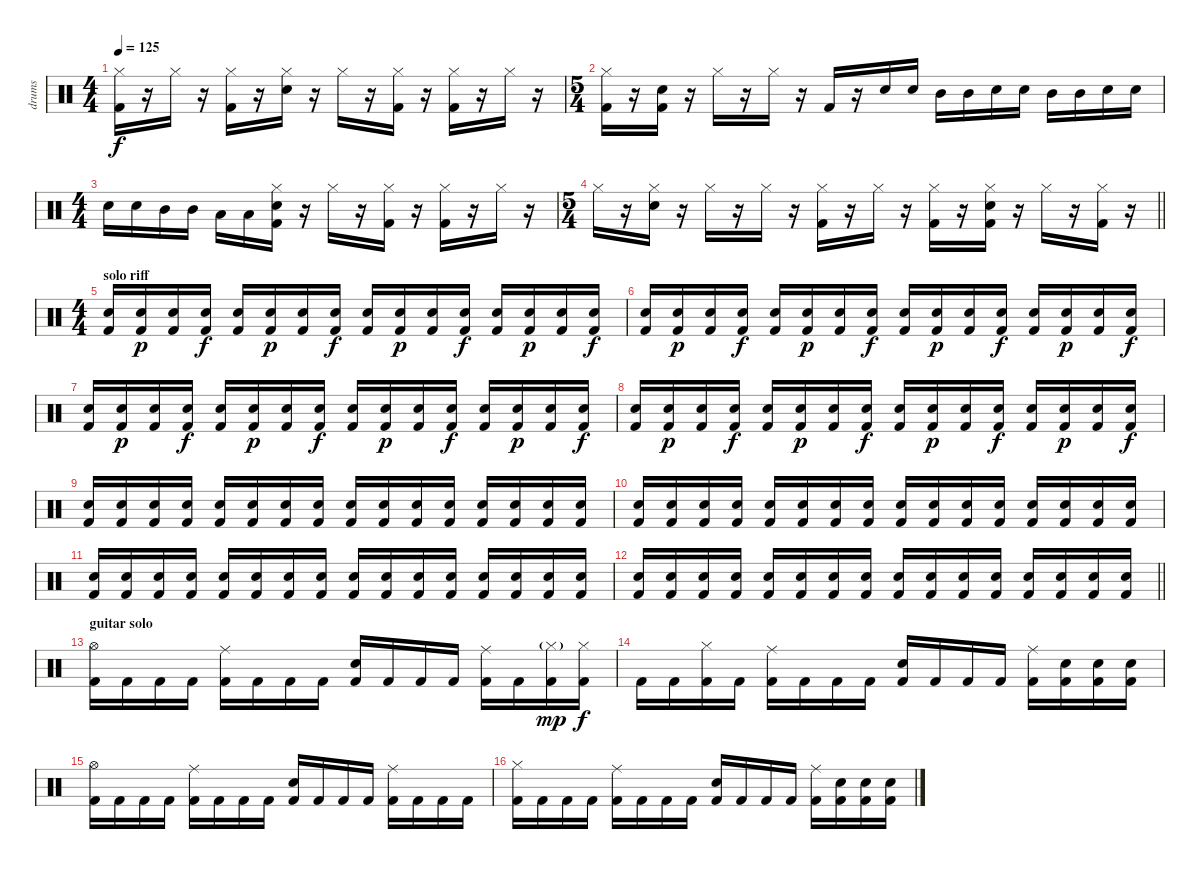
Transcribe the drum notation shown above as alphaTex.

\track ("drums" "drums") {instrument percussion}
\staff {score}
\articulation defaults
\ts (4 4)
\tempo 125
\clef neutral
\ks c
("Hi-Hat (closed)" "Kick (hit) 2").16{dy f} r.16 "Hi-Hat (closed)".16 r.16 ("Hi-Hat (closed)" "Kick (hit) 2").16 r.16 ("Electric Snare (hit)" "Hi-Hat (closed)").16 r.16 "Hi-Hat (closed)".16 r.16 ("Hi-Hat (closed)" "Kick (hit) 2").16 r.16 ("Hi-Hat (closed)" "Kick (hit) 2").16 r.16 "Hi-Hat (closed)".16 r.16 |
\ts (5 4)
("Hi-Hat (closed)" "Kick (hit) 2").16 r.16 ("Electric Snare (hit)" "Kick (hit) 2").16 r.16 "Hi-Hat (closed)".16 r.16 "Hi-Hat (closed)".16 r.16 "Kick (hit) 2".16 r.16 "Electric Snare (hit)".16 "Electric Snare (hit)".16 "Mid Tom (hit)".16 "Mid Tom (hit)".16 "Electric Snare (hit)".16 "Electric Snare (hit)".16 "Mid Tom (hit)".16 "Mid Tom (hit)".16 "Electric Snare (hit)".16 "Electric Snare (hit)".16 |
\ts (4 4)
"Electric Snare (hit)".16 "Electric Snare (hit)".16 "Mid Tom (hit)".16 "Mid Tom (hit)".16 "Low Tom (hit)".16 "Low Tom (hit)".16 ("Electric Snare (hit)" "Hi-Hat (closed)" "Kick (hit) 2").16 r.16 "Hi-Hat (closed)".16 r.16 ("Hi-Hat (closed)" "Kick (hit) 2").16 r.16 ("Hi-Hat (closed)" "Kick (hit) 2").16 r.16 "Hi-Hat (closed)".16 r.16 |
\ts (5 4)
\barLineRight lightlight "Hi-Hat (closed)".16
r.16 ("Electric Snare (hit)" "Hi-Hat (closed)").16 r.16 "Hi-Hat (closed)".16 r.16 "Hi-Hat (closed)".16 r.16 ("Hi-Hat (closed)" "Kick (hit) 2").16 r.16 "Hi-Hat (closed)".16 r.16 ("Hi-Hat (closed)" "Kick (hit) 2").16 r.16 ("Electric Snare (hit)" "Hi-Hat (closed)" "Kick (hit) 2").16 r.16 "Hi-Hat (closed)".16 r.16 ("Hi-Hat (closed)" "Kick (hit) 2").16 r.16 |
\ts (4 4)
\section ("" "solo riff")
("Electric Snare (hit)" "Kick (hit) 2").16 ("Electric Snare (hit)" "Kick (hit) 2").16{dy p} ("Electric Snare (hit)" "Kick (hit) 2").16 ("Electric Snare (hit)" "Kick (hit) 2").16{dy f} ("Electric Snare (hit)" "Kick (hit) 2").16 ("Electric Snare (hit)" "Kick (hit) 2").16{dy p} ("Electric Snare (hit)" "Kick (hit) 2").16 ("Electric Snare (hit)" "Kick (hit) 2").16{dy f} ("Electric Snare (hit)" "Kick (hit) 2").16 ("Electric Snare (hit)" "Kick (hit) 2").16{dy p} ("Electric Snare (hit)" "Kick (hit) 2").16 ("Electric Snare (hit)" "Kick (hit) 2").16{dy f} ("Electric Snare (hit)" "Kick (hit) 2").16 ("Electric Snare (hit)" "Kick (hit) 2").16{dy p} ("Electric Snare (hit)" "Kick (hit) 2").16 ("Electric Snare (hit)" "Kick (hit) 2").16{dy f} |
("Electric Snare (hit)" "Kick (hit) 2").16 ("Electric Snare (hit)" "Kick (hit) 2").16{dy p} ("Electric Snare (hit)" "Kick (hit) 2").16 ("Electric Snare (hit)" "Kick (hit) 2").16{dy f} ("Electric Snare (hit)" "Kick (hit) 2").16 ("Electric Snare (hit)" "Kick (hit) 2").16{dy p} ("Electric Snare (hit)" "Kick (hit) 2").16 ("Electric Snare (hit)" "Kick (hit) 2").16{dy f} ("Electric Snare (hit)" "Kick (hit) 2").16 ("Electric Snare (hit)" "Kick (hit) 2").16{dy p} ("Electric Snare (hit)" "Kick (hit) 2").16 ("Electric Snare (hit)" "Kick (hit) 2").16{dy f} ("Electric Snare (hit)" "Kick (hit) 2").16 ("Electric Snare (hit)" "Kick (hit) 2").16{dy p} ("Electric Snare (hit)" "Kick (hit) 2").16 ("Electric Snare (hit)" "Kick (hit) 2").16{dy f} |
("Electric Snare (hit)" "Kick (hit) 2").16 ("Electric Snare (hit)" "Kick (hit) 2").16{dy p} ("Electric Snare (hit)" "Kick (hit) 2").16 ("Electric Snare (hit)" "Kick (hit) 2").16{dy f} ("Electric Snare (hit)" "Kick (hit) 2").16 ("Electric Snare (hit)" "Kick (hit) 2").16{dy p} ("Electric Snare (hit)" "Kick (hit) 2").16 ("Electric Snare (hit)" "Kick (hit) 2").16{dy f} ("Electric Snare (hit)" "Kick (hit) 2").16 ("Electric Snare (hit)" "Kick (hit) 2").16{dy p} ("Electric Snare (hit)" "Kick (hit) 2").16 ("Electric Snare (hit)" "Kick (hit) 2").16{dy f} ("Electric Snare (hit)" "Kick (hit) 2").16 ("Electric Snare (hit)" "Kick (hit) 2").16{dy p} ("Electric Snare (hit)" "Kick (hit) 2").16 ("Electric Snare (hit)" "Kick (hit) 2").16{dy f} |
("Electric Snare (hit)" "Kick (hit) 2").16 ("Electric Snare (hit)" "Kick (hit) 2").16{dy p} ("Electric Snare (hit)" "Kick (hit) 2").16 ("Electric Snare (hit)" "Kick (hit) 2").16{dy f} ("Electric Snare (hit)" "Kick (hit) 2").16 ("Electric Snare (hit)" "Kick (hit) 2").16{dy p} ("Electric Snare (hit)" "Kick (hit) 2").16 ("Electric Snare (hit)" "Kick (hit) 2").16{dy f} ("Electric Snare (hit)" "Kick (hit) 2").16 ("Electric Snare (hit)" "Kick (hit) 2").16{dy p} ("Electric Snare (hit)" "Kick (hit) 2").16 ("Electric Snare (hit)" "Kick (hit) 2").16{dy f} ("Electric Snare (hit)" "Kick (hit) 2").16 ("Electric Snare (hit)" "Kick (hit) 2").16{dy p} ("Electric Snare (hit)" "Kick (hit) 2").16 ("Electric Snare (hit)" "Kick (hit) 2").16{dy f} |
("Electric Snare (hit)" "Kick (hit) 2").16 ("Electric Snare (hit)" "Kick (hit) 2").16 ("Electric Snare (hit)" "Kick (hit) 2").16 ("Electric Snare (hit)" "Kick (hit) 2").16 ("Electric Snare (hit)" "Kick (hit) 2").16 ("Electric Snare (hit)" "Kick (hit) 2").16 ("Electric Snare (hit)" "Kick (hit) 2").16 ("Electric Snare (hit)" "Kick (hit) 2").16 ("Electric Snare (hit)" "Kick (hit) 2").16 ("Electric Snare (hit)" "Kick (hit) 2").16 ("Electric Snare (hit)" "Kick (hit) 2").16 ("Electric Snare (hit)" "Kick (hit) 2").16 ("Electric Snare (hit)" "Kick (hit) 2").16 ("Electric Snare (hit)" "Kick (hit) 2").16 ("Electric Snare (hit)" "Kick (hit) 2").16 ("Electric Snare (hit)" "Kick (hit) 2").16 |
("Electric Snare (hit)" "Kick (hit) 2").16 ("Electric Snare (hit)" "Kick (hit) 2").16 ("Electric Snare (hit)" "Kick (hit) 2").16 ("Electric Snare (hit)" "Kick (hit) 2").16 ("Electric Snare (hit)" "Kick (hit) 2").16 ("Electric Snare (hit)" "Kick (hit) 2").16 ("Electric Snare (hit)" "Kick (hit) 2").16 ("Electric Snare (hit)" "Kick (hit) 2").16 ("Electric Snare (hit)" "Kick (hit) 2").16 ("Electric Snare (hit)" "Kick (hit) 2").16 ("Electric Snare (hit)" "Kick (hit) 2").16 ("Electric Snare (hit)" "Kick (hit) 2").16 ("Electric Snare (hit)" "Kick (hit) 2").16 ("Electric Snare (hit)" "Kick (hit) 2").16 ("Electric Snare (hit)" "Kick (hit) 2").16 ("Electric Snare (hit)" "Kick (hit) 2").16 |
("Electric Snare (hit)" "Kick (hit) 2").16 ("Electric Snare (hit)" "Kick (hit) 2").16 ("Electric Snare (hit)" "Kick (hit) 2").16 ("Electric Snare (hit)" "Kick (hit) 2").16 ("Electric Snare (hit)" "Kick (hit) 2").16 ("Electric Snare (hit)" "Kick (hit) 2").16 ("Electric Snare (hit)" "Kick (hit) 2").16 ("Electric Snare (hit)" "Kick (hit) 2").16 ("Electric Snare (hit)" "Kick (hit) 2").16 ("Electric Snare (hit)" "Kick (hit) 2").16 ("Electric Snare (hit)" "Kick (hit) 2").16 ("Electric Snare (hit)" "Kick (hit) 2").16 ("Electric Snare (hit)" "Kick (hit) 2").16 ("Electric Snare (hit)" "Kick (hit) 2").16 ("Electric Snare (hit)" "Kick (hit) 2").16 ("Electric Snare (hit)" "Kick (hit) 2").16 |
\barLineRight lightlight
("Electric Snare (hit)" "Kick (hit) 2").16 ("Electric Snare (hit)" "Kick (hit) 2").16 ("Electric Snare (hit)" "Kick (hit) 2").16 ("Electric Snare (hit)" "Kick (hit) 2").16 ("Electric Snare (hit)" "Kick (hit) 2").16 ("Electric Snare (hit)" "Kick (hit) 2").16 ("Electric Snare (hit)" "Kick (hit) 2").16 ("Electric Snare (hit)" "Kick (hit) 2").16 ("Electric Snare (hit)" "Kick (hit) 2").16 ("Electric Snare (hit)" "Kick (hit) 2").16 ("Electric Snare (hit)" "Kick (hit) 2").16 ("Electric Snare (hit)" "Kick (hit) 2").16 ("Electric Snare (hit)" "Kick (hit) 2").16 ("Electric Snare (hit)" "Kick (hit) 2").16 ("Electric Snare (hit)" "Kick (hit) 2").16 ("Electric Snare (hit)" "Kick (hit) 2").16 |
\section ("" "guitar solo")
("Hi-Hat (open)" "Kick (hit) 2").16 "Kick (hit) 2".16 "Kick (hit) 2".16 "Kick (hit) 2".16 ("Ride (middle)" "Kick (hit) 2").16 "Kick (hit) 2".16 "Kick (hit) 2".16 "Kick (hit) 2".16 ("Electric Snare (hit)" "Kick (hit) 2").16 "Kick (hit) 2".16 "Kick (hit) 2".16 "Kick (hit) 2".16 ("Ride (middle)" "Kick (hit) 2").16 "Kick (hit) 2".16 ("Hi-Hat (closed)"{g} "Kick (hit) 2").16{dy mp} ("Hi-Hat (closed)" "Kick (hit) 2").16{dy f} |
"Kick (hit) 2".16 "Kick (hit) 2".16 ("Hi-Hat (closed)" "Kick (hit) 2").16 "Kick (hit) 2".16 ("Ride (middle)" "Kick (hit) 2").16 "Kick (hit) 2".16 "Kick (hit) 2".16 "Kick (hit) 2".16 ("Electric Snare (hit)" "Kick (hit) 2").16 "Kick (hit) 2".16 "Kick (hit) 2".16 "Kick (hit) 2".16 ("Ride (middle)" "Kick (hit) 2").16 ("Electric Snare (hit)" "Kick (hit) 2").16 ("Electric Snare (hit)" "Kick (hit) 2").16 ("Electric Snare (hit)" "Kick (hit) 2").16 |
("Hi-Hat (open)" "Kick (hit) 2").16 "Kick (hit) 2".16 "Kick (hit) 2".16 "Kick (hit) 2".16 ("Ride (middle)" "Kick (hit) 2").16 "Kick (hit) 2".16 "Kick (hit) 2".16 "Kick (hit) 2".16 ("Electric Snare (hit)" "Kick (hit) 2").16 "Kick (hit) 2".16 "Kick (hit) 2".16 "Kick (hit) 2".16 ("Ride (middle)" "Kick (hit) 2").16 "Kick (hit) 2".16 "Kick (hit) 2".16 "Kick (hit) 2".16 |
("Hi-Hat (closed)" "Kick (hit) 2").16 "Kick (hit) 2".16 "Kick (hit) 2".16 "Kick (hit) 2".16 ("Ride (middle)" "Kick (hit) 2").16 "Kick (hit) 2".16 "Kick (hit) 2".16 "Kick (hit) 2".16 ("Electric Snare (hit)" "Kick (hit) 2").16 "Kick (hit) 2".16 "Kick (hit) 2".16 "Kick (hit) 2".16 ("Ride (middle)" "Kick (hit) 2").16 ("Electric Snare (hit)" "Kick (hit) 2").16 ("Electric Snare (hit)" "Kick (hit) 2").16 ("Electric Snare (hit)" "Kick (hit) 2").16
